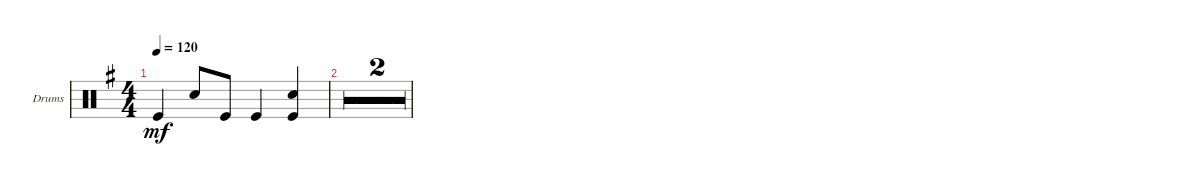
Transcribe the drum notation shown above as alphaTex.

\defaultSystemsLayout 4
\bracketExtendMode groupsimilarinstruments
\useSystemSignSeparator
\multiTrackTrackNamePolicy allsystems
\firstSystemTrackNameOrientation horizontal
\otherSystemsTrackNameOrientation horizontal
\track ("Drumkit" "Drums") {multiBarRest instrument percussion}
\staff {score}
\articulation defaults
\ts (4 4)
\tempo 120
\clef neutral
\ks g "Kick (hit)".4{dy mf} "Snare (hit) 2".8 "Kick (hit)".8 "Kick (hit)".4
("Kick (hit)" "Snare (hit) 2").4 |
r.1 |
r.2{dd}
